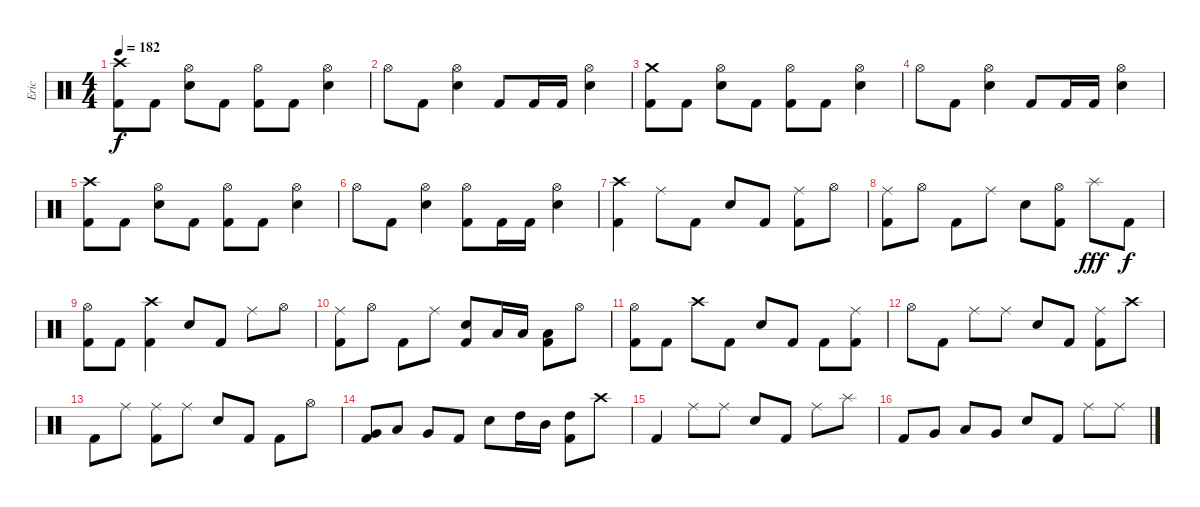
\track ("Eric" "Eric") {instrument percussion}
\staff {score}
\articulation defaults
\ts (4 4)
\tempo 182
\clef neutral
\ks c
("Crash high (hit)" "Kick (hit) 2").8{dy f} "Kick (hit) 2".8 ("Hi-Hat (open)" "Snare (hit) 2").8 "Kick (hit) 2".8 ("Hi-Hat (open)" "Kick (hit) 2").8 "Kick (hit) 2".8 ("Hi-Hat (open)" "Snare (hit) 2").4 |
"Hi-Hat (open)".8 "Kick (hit) 2".8 ("Hi-Hat (open)" "Snare (hit) 2").4 "Kick (hit) 2".8 "Kick (hit) 2".16 "Kick (hit) 2".16 ("Hi-Hat (open)" "Snare (hit) 2").4 |
("Crash medium (hit)" "Kick (hit) 2").8 "Kick (hit) 2".8 ("Hi-Hat (open)" "Snare (hit) 2").8 "Kick (hit) 2".8 ("Hi-Hat (open)" "Kick (hit) 2").8 "Kick (hit) 2".8 ("Hi-Hat (open)" "Snare (hit) 2").4 |
"Hi-Hat (open)".8 "Kick (hit) 2".8 ("Hi-Hat (open)" "Snare (hit) 2").4 "Kick (hit) 2".8 "Kick (hit) 2".16 "Kick (hit) 2".16 ("Hi-Hat (open)" "Snare (hit) 2").4 |
("Crash high (hit)" "Kick (hit) 2").8 "Kick (hit) 2".8 ("Hi-Hat (open)" "Snare (hit) 2").8 "Kick (hit) 2".8 ("Hi-Hat (open)" "Kick (hit) 2").8 "Kick (hit) 2".8 ("Hi-Hat (open)" "Snare (hit) 2").4 |
"Hi-Hat (open)".8 "Kick (hit) 2".8 ("Hi-Hat (open)" "Snare (hit) 2").4 ("Hi-Hat (open)" "Kick (hit) 2").8 "Kick (hit) 2".16 "Kick (hit) 2".16 ("Hi-Hat (open)" "Snare (hit) 2").4 |
("Crash high (hit)" "Kick (hit) 2").4 "Ride (middle)".8 "Kick (hit) 2".8 "Snare (hit) 2".8 "Kick (hit) 2".8 ("Ride (middle)" "Kick (hit) 2").8 "Hi-Hat (open)".8 |
("Ride (middle)" "Kick (hit) 2").8 "Hi-Hat (open)".8 "Kick (hit) 2".8 "Ride (middle)".8 "Snare (hit) 2".8 ("Hi-Hat (open)" "Kick (hit) 2").8 "Splash (hit)".8{dy fff} "Kick (hit) 2".8{dy f} |
("Hi-Hat (open)" "Kick (hit) 2").8 "Kick (hit) 2".8 ("Crash high (hit)" "Kick (hit) 2").4 "Snare (hit) 2".8 "Kick (hit) 2".8 "Ride (middle)".8 "Hi-Hat (open)".8 |
("Ride (middle)" "Kick (hit) 2").8 "Hi-Hat (open)".8 "Kick (hit) 2".8 "Ride (middle)".8 ("Snare (hit) 2" "Kick (hit) 2").8 "Low Tom (hit)".16 "Low Tom (hit)".16 ("Low Tom (hit)" "Kick (hit) 2").8 "Hi-Hat (open)".8 |
("Hi-Hat (open)" "Kick (hit) 2").8 "Kick (hit) 2".8 "Crash high (hit)".8 "Kick (hit) 2".8 "Snare (hit) 2".8 "Kick (hit) 2".8 "Kick (hit) 2".8 ("Ride (middle)" "Kick (hit) 2").8 |
"Hi-Hat (open)".8 "Kick (hit) 2".8 "Ride (middle)".8 "Ride (middle)".8 "Snare (hit) 2".8 "Kick (hit) 2".8 ("Ride (middle)" "Kick (hit) 2").8 "Crash high (hit)".8 |
"Kick (hit) 2".8 "Ride (middle)".8 ("Ride (middle)" "Kick (hit) 2").8 "Ride (middle)".8 "Snare (hit) 2".8 "Kick (hit) 2".8 "Kick (hit) 2".8 "Hi-Hat (open)".8 |
("Very Low Tom (hit)" "Kick (hit) 2").8 "Low Tom (hit)".8 "Very Low Tom (hit)".8 "Kick (hit) 2".8 "Snare (hit) 2".8 "High Tom (hit)".16 "Mid Tom (hit)".16 ("High Tom (hit)" "Kick (hit) 2").8 "Crash high (hit)".8 |
"Kick (hit) 2".4 "Ride (middle)".8 "Ride (middle)".8 "Snare (hit) 2".8 "Kick (hit) 2".8 "Ride (middle)".8 "Splash (hit)".8 |
"Kick (hit) 2".8 "Very Low Tom (hit)".8 "Low Tom (hit)".8 "Very Low Tom (hit)".8 "Snare (hit) 2".8 "Kick (hit) 2".8 "Ride (middle)".8 "Ride (middle)".8
